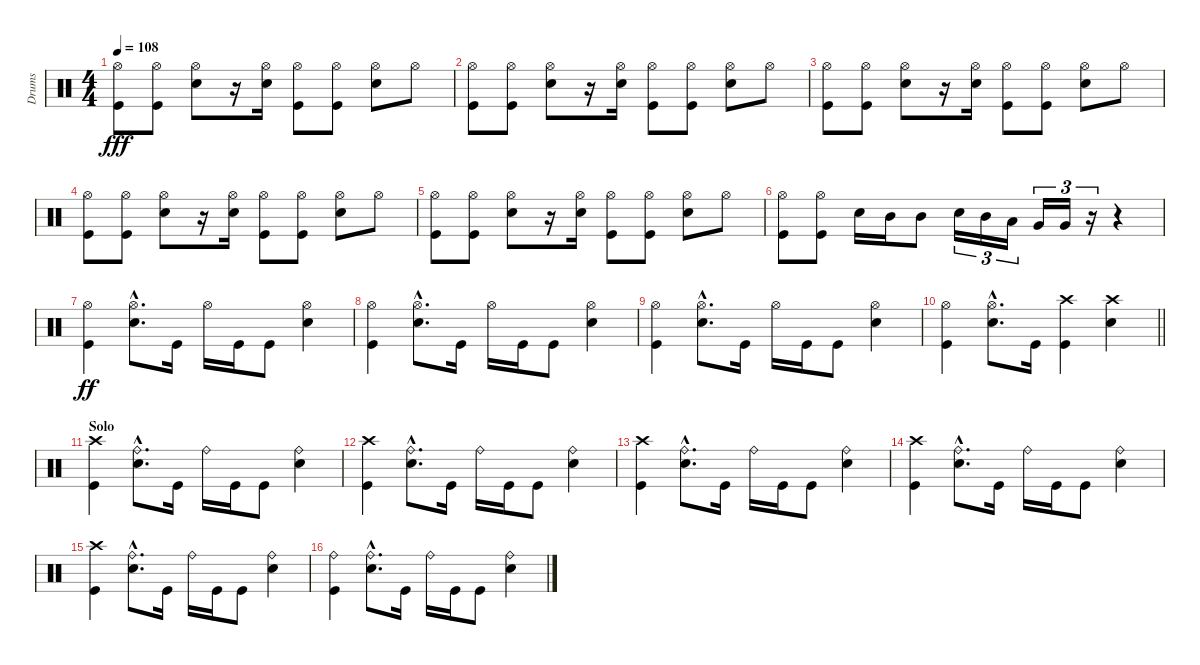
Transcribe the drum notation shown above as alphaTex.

\track ("Drums" "Drums") {instrument percussion}
\staff {score}
\articulation defaults
\ts (4 4)
\tempo 108
\clef neutral
\ks c
("Hi-Hat (open)" "Kick (hit)").8{dy fff} ("Hi-Hat (open)" "Kick (hit)").8 ("Hi-Hat (open)" "Electric Snare (hit)").8 r.16 ("Hi-Hat (open)" "Electric Snare (hit)").16 ("Hi-Hat (open)" "Kick (hit)").8 ("Hi-Hat (open)" "Kick (hit)").8 ("Hi-Hat (open)" "Electric Snare (hit)").8 "Hi-Hat (open)".8 |
("Hi-Hat (open)" "Kick (hit)").8 ("Hi-Hat (open)" "Kick (hit)").8 ("Hi-Hat (open)" "Electric Snare (hit)").8 r.16 ("Hi-Hat (open)" "Electric Snare (hit)").16 ("Hi-Hat (open)" "Kick (hit)").8 ("Hi-Hat (open)" "Kick (hit)").8 ("Hi-Hat (open)" "Electric Snare (hit)").8 "Hi-Hat (open)".8 |
("Hi-Hat (open)" "Kick (hit)").8 ("Hi-Hat (open)" "Kick (hit)").8 ("Hi-Hat (open)" "Electric Snare (hit)").8 r.16 ("Hi-Hat (open)" "Electric Snare (hit)").16 ("Hi-Hat (open)" "Kick (hit)").8 ("Hi-Hat (open)" "Kick (hit)").8 ("Hi-Hat (open)" "Electric Snare (hit)").8 "Hi-Hat (open)".8 |
("Hi-Hat (open)" "Kick (hit)").8 ("Hi-Hat (open)" "Kick (hit)").8 ("Hi-Hat (open)" "Electric Snare (hit)").8 r.16 ("Hi-Hat (open)" "Electric Snare (hit)").16 ("Hi-Hat (open)" "Kick (hit)").8 ("Hi-Hat (open)" "Kick (hit)").8 ("Hi-Hat (open)" "Electric Snare (hit)").8 "Hi-Hat (open)".8 |
("Hi-Hat (open)" "Kick (hit)").8 ("Hi-Hat (open)" "Kick (hit)").8 ("Hi-Hat (open)" "Electric Snare (hit)").8 r.16 ("Hi-Hat (open)" "Electric Snare (hit)").16 ("Hi-Hat (open)" "Kick (hit)").8 ("Hi-Hat (open)" "Kick (hit)").8 ("Hi-Hat (open)" "Electric Snare (hit)").8 "Hi-Hat (open)".8 |
("Hi-Hat (open)" "Kick (hit)").8 ("Hi-Hat (open)" "Kick (hit)").8 "Electric Snare (hit)".16 "Mid Tom (hit)".16 "Mid Tom (hit)".8 "Electric Snare (hit)".16{tu (3 2)} "Mid Tom (hit)".16{tu (3 2)} "Low Tom (hit)".16{tu (3 2)} "Very Low Tom (hit)".16{tu (3 2)} "Very Low Tom (hit)".16{tu (3 2)} r.16{tu (3 2)} r.4 |
("Hi-Hat (open)" "Kick (hit)").4{dy ff} ("Hi-Hat (open)"{hac} "Electric Snare (hit)"{hac}).8{d} "Kick (hit)".16 "Hi-Hat (open)".16 "Kick (hit)".16 "Kick (hit)".8 ("Hi-Hat (open)" "Electric Snare (hit)").4 |
("Hi-Hat (open)" "Kick (hit)").4 ("Hi-Hat (open)"{hac} "Electric Snare (hit)"{hac}).8{d} "Kick (hit)".16 "Hi-Hat (open)".16 "Kick (hit)".16 "Kick (hit)".8 ("Hi-Hat (open)" "Electric Snare (hit)").4 |
("Hi-Hat (open)" "Kick (hit)").4 ("Hi-Hat (open)"{hac} "Electric Snare (hit)"{hac}).8{d} "Kick (hit)".16 "Hi-Hat (open)".16 "Kick (hit)".16 "Kick (hit)".8 ("Hi-Hat (open)" "Electric Snare (hit)").4 |
\barLineRight lightlight
("Hi-Hat (open)" "Kick (hit)").4 ("Hi-Hat (open)"{hac} "Electric Snare (hit)"{hac}).8{d} "Kick (hit)".16 ("Crash high (hit)" "Kick (hit)").4 ("Crash high (hit)" "Electric Snare (hit)").4 |
\section ("" "Solo")
("Crash high (hit)" "Kick (hit)").4 ("Ride (bell)"{hac} "Electric Snare (hit)"{hac}).8{d} "Kick (hit)".16 "Ride (bell)".16 "Kick (hit)".16 "Kick (hit)".8 ("Ride (bell)" "Electric Snare (hit)").4 |
("Crash high (hit)" "Kick (hit)").4 ("Ride (bell)"{hac} "Electric Snare (hit)"{hac}).8{d} "Kick (hit)".16 "Ride (bell)".16 "Kick (hit)".16 "Kick (hit)".8 ("Ride (bell)" "Electric Snare (hit)").4 |
("Crash high (hit)" "Kick (hit)").4 ("Ride (bell)"{hac} "Electric Snare (hit)"{hac}).8{d} "Kick (hit)".16 "Ride (bell)".16 "Kick (hit)".16 "Kick (hit)".8 ("Ride (bell)" "Electric Snare (hit)").4 |
("Crash high (hit)" "Kick (hit)").4 ("Ride (bell)"{hac} "Electric Snare (hit)"{hac}).8{d} "Kick (hit)".16 "Ride (bell)".16 "Kick (hit)".16 "Kick (hit)".8 ("Ride (bell)" "Electric Snare (hit)").4 |
("Crash high (hit)" "Kick (hit)").4 ("Ride (bell)"{hac} "Electric Snare (hit)"{hac}).8{d} "Kick (hit)".16 "Ride (bell)".16 "Kick (hit)".16 "Kick (hit)".8 ("Ride (bell)" "Electric Snare (hit)").4 |
("Ride (bell)" "Kick (hit)").4 ("Ride (bell)"{hac} "Electric Snare (hit)"{hac}).8{d} "Kick (hit)".16 "Ride (bell)".16 "Kick (hit)".16 "Kick (hit)".8 ("Ride (bell)" "Electric Snare (hit)").4
